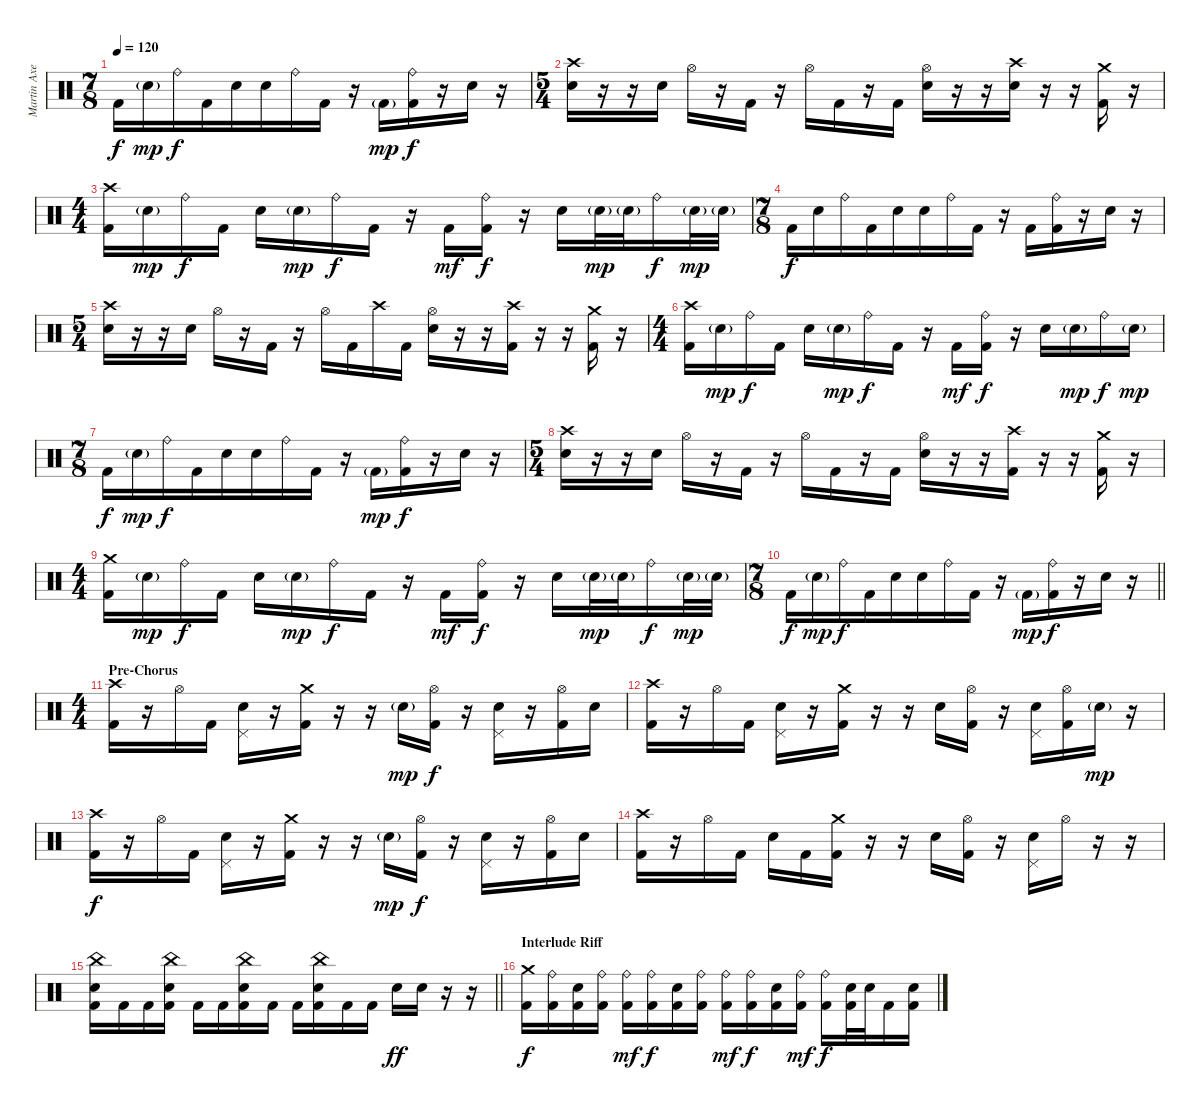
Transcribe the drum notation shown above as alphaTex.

\track ("Martin Axenrot - Drums" "Martin Axe") {instrument percussion}
\staff {score}
\articulation defaults
\ts (7 8)
\tempo 120
\clef neutral
\ks c "Kick (hit) 2".16{dy f} "Snare (hit) 2"{g}.16{dy mp} "Ride (bell)".16{dy f} "Kick (hit) 2".16 "Snare (hit) 2".16 "Snare (hit) 2".16 "Ride (bell)".16 "Kick (hit) 2".16
r.16 "Kick (hit) 2"{g}.16{dy mp} ("Ride (bell)" "Kick (hit) 2").16{dy f} r.16 "Snare (hit) 2".16 r.16 |
\ts (5 4)
("Crash high (hit)" "Snare (hit) 2").16 r.16 r.16 "Snare (hit) 2".16 "Hi-Hat (open)".16 r.16 "Kick (hit) 2".16 r.16 "Hi-Hat (open)".16 "Kick (hit) 2".16 r.16 "Kick (hit) 2".16 ("Hi-Hat (open)" "Snare (hit) 2").16 r.16 r.16 ("Crash high (hit)" "Snare (hit) 2").16 r.16 r.16 ("Crash medium (hit)" "Kick (hit) 2").16 r.16 |
\ts (4 4)
("Crash high (hit)" "Kick (hit) 2").16 "Snare (hit) 2"{g}.16{dy mp} "Ride (bell)".16{dy f} "Kick (hit) 2".16 "Snare (hit) 2".16 "Snare (hit) 2"{g}.16{dy mp} "Ride (bell)".16{dy f} "Kick (hit) 2".16 r.16 "Kick (hit) 2".16{dy mf} ("Ride (bell)" "Kick (hit) 2").16{dy f} r.16 "Snare (hit) 2".16 "Snare (hit) 2"{g}.32{dy mp} "Snare (hit) 2"{g}.32 "Ride (bell)".16{dy f} "Snare (hit) 2"{g}.32{dy mp} "Snare (hit) 2"{g}.32 |
\ts (7 8)
"Kick (hit) 2".16{dy f} "Snare (hit) 2".16 "Ride (bell)".16 "Kick (hit) 2".16 "Snare (hit) 2".16 "Snare (hit) 2".16 "Ride (bell)".16 "Kick (hit) 2".16 r.16 "Kick (hit) 2".16 ("Ride (bell)" "Kick (hit) 2").16 r.16 "Snare (hit) 2".16 r.16 |
\ts (5 4)
("Crash high (hit)" "Snare (hit) 2").16 r.16 r.16 "Snare (hit) 2".16 "Hi-Hat (open)".16 r.16 "Kick (hit) 2".16 r.16 "Hi-Hat (open)".16 "Kick (hit) 2".16 "Crash high (hit)".16 "Kick (hit) 2".16 ("Hi-Hat (open)" "Snare (hit) 2").16 r.16 r.16 ("Crash high (hit)" "Kick (hit) 2").16 r.16 r.16 ("Crash medium (hit)" "Kick (hit) 2").16 r.16 |
\ts (4 4)
("Crash high (hit)" "Kick (hit) 2").16 "Snare (hit) 2"{g}.16{dy mp} "Ride (bell)".16{dy f} "Kick (hit) 2".16 "Snare (hit) 2".16 "Snare (hit) 2"{g}.16{dy mp} "Ride (bell)".16{dy f} "Kick (hit) 2".16 r.16 "Kick (hit) 2".16{dy mf} ("Ride (bell)" "Kick (hit) 2").16{dy f} r.16 "Snare (hit) 2".16 "Snare (hit) 2"{g}.16{dy mp} "Ride (bell)".16{dy f} "Snare (hit) 2"{g}.16{dy mp} |
\ts (7 8)
"Kick (hit) 2".16{dy f} "Snare (hit) 2"{g}.16{dy mp} "Ride (bell)".16{dy f} "Kick (hit) 2".16 "Snare (hit) 2".16 "Snare (hit) 2".16 "Ride (bell)".16 "Kick (hit) 2".16 r.16 "Kick (hit) 2"{g}.16{dy mp} ("Ride (bell)" "Kick (hit) 2").16{dy f} r.16 "Snare (hit) 2".16 r.16 |
\ts (5 4)
("Crash high (hit)" "Snare (hit) 2").16 r.16 r.16 "Snare (hit) 2".16 "Hi-Hat (open)".16 r.16 "Kick (hit) 2".16 r.16 "Hi-Hat (open)".16 "Kick (hit) 2".16 r.16 "Kick (hit) 2".16 ("Hi-Hat (open)" "Snare (hit) 2").16 r.16 r.16 ("Crash high (hit)" "Kick (hit) 2").16 r.16 r.16 ("Crash medium (hit)" "Kick (hit) 2").16 r.16 |
\ts (4 4)
("Crash medium (hit)" "Kick (hit) 2").16 "Snare (hit) 2"{g}.16{dy mp} "Ride (bell)".16{dy f} "Kick (hit) 2".16 "Snare (hit) 2".16 "Snare (hit) 2"{g}.16{dy mp} "Ride (bell)".16{dy f} "Kick (hit) 2".16 r.16 "Kick (hit) 2".16{dy mf} ("Ride (bell)" "Kick (hit) 2").16{dy f} r.16 "Snare (hit) 2".16 "Snare (hit) 2"{g}.32{dy mp} "Snare (hit) 2"{g}.32 "Ride (bell)".16{dy f} "Snare (hit) 2"{g}.32{dy mp} "Snare (hit) 2"{g}.32 |
\ts (7 8)
\barLineRight lightlight "Kick (hit) 2".16{dy f} "Snare (hit) 2"{g}.16{dy mp} "Ride (bell)".16{dy f} "Kick (hit) 2".16 "Snare (hit) 2".16 "Snare (hit) 2".16 "Ride (bell)".16 "Kick (hit) 2".16
r.16 "Kick (hit) 2"{g}.16{dy mp} ("Ride (bell)" "Kick (hit) 2").16{dy f} r.16 "Snare (hit) 2".16 r.16 |
\ts (4 4)
\section ("" "Pre-Chorus")
("Crash high (hit)" "Kick (hit) 2").16 r.16 "Hi-Hat (open)".16 "Kick (hit) 2".16 ("Snare (hit) 2" "Pedal Hi-Hat (hit)").16 r.16 ("Crash medium (hit)" "Kick (hit) 2").16 r.16 r.16 "Snare (hit) 2"{g}.16{dy mp} ("Hi-Hat (open)" "Kick (hit) 2").16{dy f} r.16 ("Snare (hit) 2" "Pedal Hi-Hat (hit)").16 r.16 ("Hi-Hat (open)" "Kick (hit) 2").16 "Snare (hit) 2".16 |
("Crash high (hit)" "Kick (hit) 2").16 r.16 "Hi-Hat (open)".16 "Kick (hit) 2".16 ("Snare (hit) 2" "Pedal Hi-Hat (hit)").16 r.16 ("Crash medium (hit)" "Kick (hit) 2").16 r.16 r.16 "Snare (hit) 2".16 ("Hi-Hat (open)" "Kick (hit) 2").16 r.16 ("Snare (hit) 2" "Pedal Hi-Hat (hit)").16 ("Hi-Hat (open)" "Kick (hit) 2").16 "Snare (hit) 2"{g}.16{dy mp} r.16 |
("Crash high (hit)" "Kick (hit) 2").16{dy f} r.16 "Hi-Hat (open)".16 "Kick (hit) 2".16 ("Snare (hit) 2" "Pedal Hi-Hat (hit)").16 r.16 ("Crash medium (hit)" "Kick (hit) 2").16 r.16 r.16 "Snare (hit) 2"{g}.16{dy mp} ("Hi-Hat (open)" "Kick (hit) 2").16{dy f} r.16 ("Snare (hit) 2" "Pedal Hi-Hat (hit)").16 r.16 ("Hi-Hat (open)" "Kick (hit) 2").16 "Snare (hit) 2".16 |
("Crash high (hit)" "Kick (hit) 2").16 r.16 "Hi-Hat (open)".16 "Kick (hit) 2".16 "Snare (hit) 2".16 "Kick (hit) 2".16 ("Crash medium (hit)" "Kick (hit) 2").16 r.16 r.16 "Snare (hit) 2".16 ("Hi-Hat (open)" "Kick (hit) 2").16 r.16 ("Snare (hit) 2" "Pedal Hi-Hat (hit)").16 "Hi-Hat (open)".16 r.16 r.16 |
\barLineRight lightlight
("China (hit)" "Snare (hit) 2" "Kick (hit) 2").16 "Kick (hit) 2".16 "Kick (hit) 2".16 ("China (hit)" "Snare (hit) 2" "Kick (hit) 2").16 "Kick (hit) 2".16 "Kick (hit) 2".16 ("China (hit)" "Snare (hit) 2" "Kick (hit) 2").16 "Kick (hit) 2".16 "Kick (hit) 2".16 ("China (hit)" "Snare (hit) 2" "Kick (hit) 2").16 "Kick (hit) 2".16 "Kick (hit) 2".16 "Snare (hit) 2".16{dy ff} "Snare (hit) 2".16 r.16 r.16 |
\section ("" "Interlude Riff")
("Crash medium (hit)" "Kick (hit) 2").16{dy f} ("Ride (bell)" "Kick (hit) 2").16 ("Snare (hit) 2" "Kick (hit) 2").16 ("Ride (bell)" "Kick (hit) 2").16 ("Ride (bell)" "Kick (hit) 2").16{dy mf} ("Ride (bell)" "Kick (hit) 2").16{dy f} ("Snare (hit) 2" "Kick (hit) 2").16 ("Ride (bell)" "Kick (hit) 2").16 ("Ride (bell)" "Kick (hit) 2").16{dy mf} ("Ride (bell)" "Kick (hit) 2").16{dy f} ("Snare (hit) 2" "Kick (hit) 2").16 ("Ride (bell)" "Kick (hit) 2").16{dy mf} ("Ride (bell)" "Kick (hit) 2").16{dy f} ("Snare (hit) 2" "Kick (hit) 2").32 "Snare (hit) 2".32 "Kick (hit) 2".16 ("Snare (hit) 2" "Kick (hit) 2").16
